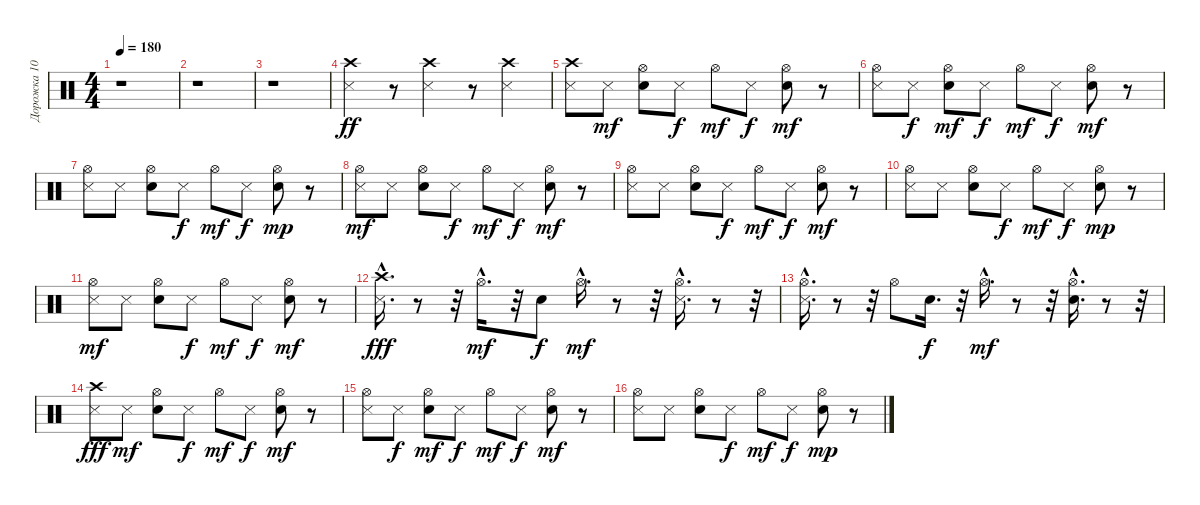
\track ("Дорожка 10" "Дорожка 10") {instrument percussion}
\staff {score}
\articulation defaults
\ts (4 4)
\tempo 180
\clef neutral
\ks c
r.1{dy ff} |
r.1 |
r.1 |
("Crash high (hit)" "Metronome (hit)").4 r.8 ("Crash high (hit)" "Metronome (hit)").4 r.8 ("Metronome (hit)" "Crash high (hit)").4 |
("Crash high (hit)" "Metronome (hit)").8 "Metronome (hit)".8{dy mf} ("Hi-Hat (open)" "Snare (hit) 2").8 "Metronome (hit)".8{dy f} "Hi-Hat (open)".8{dy mf} "Metronome (hit)".8{dy f} ("Hi-Hat (open)" "Snare (hit) 2").8{dy mf} r.8 |
("Hi-Hat (open)" "Metronome (hit)").8 "Metronome (hit)".8{dy f} ("Hi-Hat (open)" "Snare (hit) 2").8{dy mf} "Metronome (hit)".8{dy f} "Hi-Hat (open)".8{dy mf} "Metronome (hit)".8{dy f} ("Hi-Hat (open)" "Snare (hit) 2").8{dy mf} r.8 |
("Hi-Hat (open)" "Metronome (hit)").8 "Metronome (hit)".8 ("Hi-Hat (open)" "Snare (hit) 2").8 "Metronome (hit)".8{dy f} "Hi-Hat (open)".8{dy mf} "Metronome (hit)".8{dy f} ("Hi-Hat (open)" "Snare (hit) 2").8{dy mp} r.8 |
("Hi-Hat (open)" "Metronome (hit)").8{dy mf} "Metronome (hit)".8 ("Hi-Hat (open)" "Snare (hit) 2").8 "Metronome (hit)".8{dy f} "Hi-Hat (open)".8{dy mf} "Metronome (hit)".8{dy f} ("Hi-Hat (open)" "Snare (hit) 2").8{dy mf} r.8 |
("Hi-Hat (open)" "Metronome (hit)").8 "Metronome (hit)".8 ("Hi-Hat (open)" "Snare (hit) 2").8 "Metronome (hit)".8{dy f} "Hi-Hat (open)".8{dy mf} "Metronome (hit)".8{dy f} ("Hi-Hat (open)" "Snare (hit) 2").8{dy mf} r.8 |
("Hi-Hat (open)" "Metronome (hit)").8 "Metronome (hit)".8 ("Hi-Hat (open)" "Snare (hit) 2").8 "Metronome (hit)".8{dy f} "Hi-Hat (open)".8{dy mf} "Metronome (hit)".8{dy f} ("Hi-Hat (open)" "Snare (hit) 2").8{dy mp} r.8 |
("Hi-Hat (open)" "Metronome (hit)").8{dy mf} "Metronome (hit)".8 ("Hi-Hat (open)" "Snare (hit) 2").8 "Metronome (hit)".8{dy f} "Hi-Hat (open)".8{dy mf} "Metronome (hit)".8{dy f} ("Hi-Hat (open)" "Snare (hit) 2").8{dy mf} r.8 |
("Metronome (hit)"{hac} "Crash high (hit)").16{d dy fff} r.8 r.32 "Hi-Hat (open)"{hac}.16{d dy mf} r.32 "Snare (hit) 2".8{dy f} "Hi-Hat (open)"{hac}.16{d dy mf} r.8 r.32 ("Hi-Hat (open)"{hac} "Metronome (hit)").16{d} r.8 r.32 |
("Hi-Hat (open)"{hac} "Metronome (hit)"{hac}).16{d} r.8 r.32 "Hi-Hat (open)".8 "Snare (hit) 2".16{d dy f} r.32 "Hi-Hat (open)"{hac}.16{d dy mf} r.8 r.32 ("Snare (hit) 2"{hac} "Hi-Hat (open)"{hac}).16{d} r.8 r.32 |
("Crash high (hit)" "Metronome (hit)").8{dy fff} "Metronome (hit)".8{dy mf} ("Hi-Hat (open)" "Snare (hit) 2").8 "Metronome (hit)".8{dy f} "Hi-Hat (open)".8{dy mf} "Metronome (hit)".8{dy f} ("Hi-Hat (open)" "Snare (hit) 2").8{dy mf} r.8 |
("Hi-Hat (open)" "Metronome (hit)").8 "Metronome (hit)".8{dy f} ("Hi-Hat (open)" "Snare (hit) 2").8{dy mf} "Metronome (hit)".8{dy f} "Hi-Hat (open)".8{dy mf} "Metronome (hit)".8{dy f} ("Hi-Hat (open)" "Snare (hit) 2").8{dy mf} r.8 |
("Hi-Hat (open)" "Metronome (hit)").8 "Metronome (hit)".8 ("Hi-Hat (open)" "Snare (hit) 2").8 "Metronome (hit)".8{dy f} "Hi-Hat (open)".8{dy mf} "Metronome (hit)".8{dy f} ("Hi-Hat (open)" "Snare (hit) 2").8{dy mp} r.8
